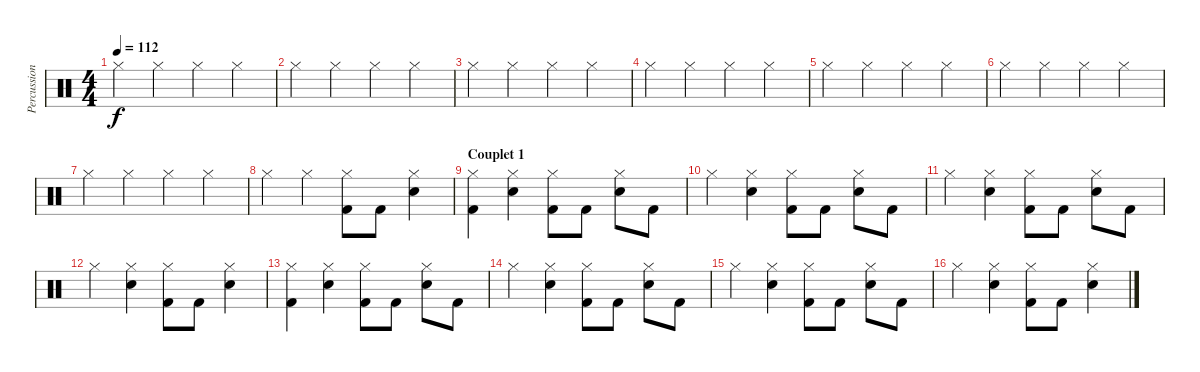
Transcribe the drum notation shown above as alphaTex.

\track ("Percussions" "Percussion") {instrument percussion}
\staff {score}
\articulation defaults
\ts (4 4)
\tempo 112
\clef neutral
\ks c "Hi-Hat (closed)".4{dy f} "Hi-Hat (closed)".4 "Hi-Hat (closed)".4 "Hi-Hat (closed)".4
|
"Hi-Hat (closed)".4 "Hi-Hat (closed)".4 "Hi-Hat (closed)".4 "Hi-Hat (closed)".4 |
"Hi-Hat (closed)".4 "Hi-Hat (closed)".4 "Hi-Hat (closed)".4 "Hi-Hat (closed)".4 |
"Hi-Hat (closed)".4 "Hi-Hat (closed)".4 "Hi-Hat (closed)".4 "Hi-Hat (closed)".4 |
"Hi-Hat (closed)".4 "Hi-Hat (closed)".4 "Hi-Hat (closed)".4 "Hi-Hat (closed)".4 |
"Hi-Hat (closed)".4 "Hi-Hat (closed)".4 "Hi-Hat (closed)".4 "Hi-Hat (closed)".4 |
"Hi-Hat (closed)".4 "Hi-Hat (closed)".4 "Hi-Hat (closed)".4 "Hi-Hat (closed)".4 |
"Hi-Hat (closed)".4 "Hi-Hat (closed)".4 ("Hi-Hat (closed)" "Kick (hit) 2").8 "Kick (hit) 2".8 ("Hi-Hat (closed)" "Snare (hit) 2").4 |
\section ("" "Couplet 1")
("Hi-Hat (closed)" "Kick (hit) 2").4 ("Hi-Hat (closed)" "Snare (hit) 2").4 ("Hi-Hat (closed)" "Kick (hit) 2").8 "Kick (hit) 2".8 ("Hi-Hat (closed)" "Snare (hit) 2").8 "Kick (hit) 2".8 |
"Hi-Hat (closed)".4 ("Hi-Hat (closed)" "Snare (hit) 2").4 ("Hi-Hat (closed)" "Kick (hit) 2").8 "Kick (hit) 2".8 ("Hi-Hat (closed)" "Snare (hit) 2").8 "Kick (hit) 2".8 |
"Hi-Hat (closed)".4 ("Hi-Hat (closed)" "Snare (hit) 2").4 ("Hi-Hat (closed)" "Kick (hit) 2").8 "Kick (hit) 2".8 ("Hi-Hat (closed)" "Snare (hit) 2").8 "Kick (hit) 2".8 |
"Hi-Hat (closed)".4 ("Hi-Hat (closed)" "Snare (hit) 2").4 ("Hi-Hat (closed)" "Kick (hit) 2").8 "Kick (hit) 2".8 ("Hi-Hat (closed)" "Snare (hit) 2").4 |
("Hi-Hat (closed)" "Kick (hit) 2").4 ("Hi-Hat (closed)" "Snare (hit) 2").4 ("Hi-Hat (closed)" "Kick (hit) 2").8 "Kick (hit) 2".8 ("Hi-Hat (closed)" "Snare (hit) 2").8 "Kick (hit) 2".8 |
"Hi-Hat (closed)".4 ("Hi-Hat (closed)" "Snare (hit) 2").4 ("Hi-Hat (closed)" "Kick (hit) 2").8 "Kick (hit) 2".8 ("Hi-Hat (closed)" "Snare (hit) 2").8 "Kick (hit) 2".8 |
"Hi-Hat (closed)".4 ("Hi-Hat (closed)" "Snare (hit) 2").4 ("Hi-Hat (closed)" "Kick (hit) 2").8 "Kick (hit) 2".8 ("Hi-Hat (closed)" "Snare (hit) 2").8 "Kick (hit) 2".8 |
"Hi-Hat (closed)".4 ("Hi-Hat (closed)" "Snare (hit) 2").4 ("Hi-Hat (closed)" "Kick (hit) 2").8 "Kick (hit) 2".8 ("Hi-Hat (closed)" "Snare (hit) 2").4
